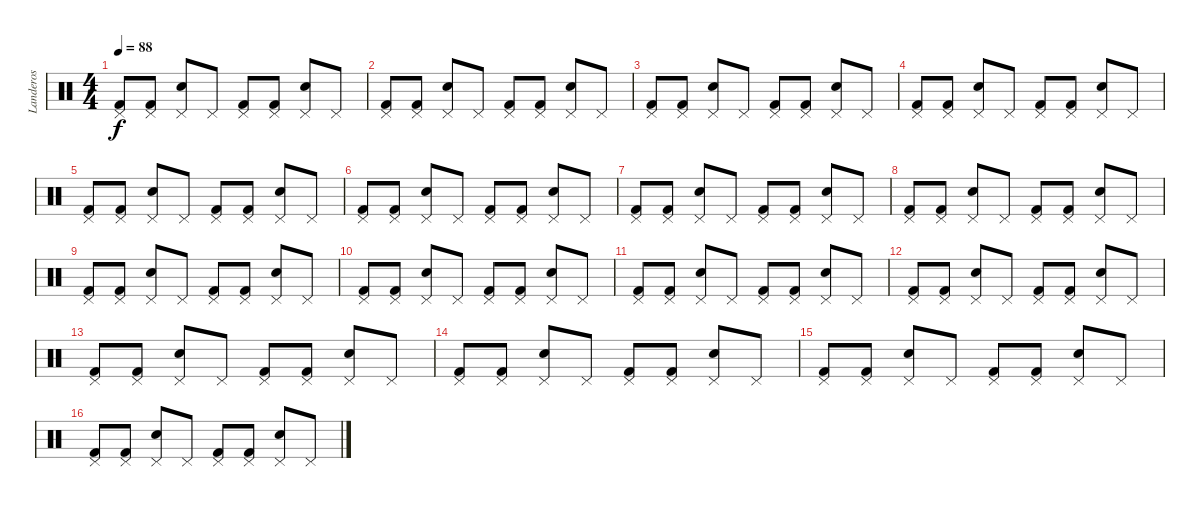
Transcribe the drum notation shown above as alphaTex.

\track ("Landeros" "Landeros") {instrument percussion}
\staff {score}
\articulation defaults
\ts (4 4)
\tempo 88
\clef neutral
\ks c
("Kick (hit) 2" "Pedal Hi-Hat (hit)").8{dy f} ("Kick (hit) 2" "Pedal Hi-Hat (hit)").8 ("Electric Snare (hit)" "Pedal Hi-Hat (hit)").8 "Pedal Hi-Hat (hit)".8 ("Kick (hit) 2" "Pedal Hi-Hat (hit)").8 ("Kick (hit) 2" "Pedal Hi-Hat (hit)").8 ("Electric Snare (hit)" "Pedal Hi-Hat (hit)").8 "Pedal Hi-Hat (hit)".8 |
("Kick (hit) 2" "Pedal Hi-Hat (hit)").8 ("Kick (hit) 2" "Pedal Hi-Hat (hit)").8 ("Electric Snare (hit)" "Pedal Hi-Hat (hit)").8 "Pedal Hi-Hat (hit)".8 ("Kick (hit) 2" "Pedal Hi-Hat (hit)").8 ("Kick (hit) 2" "Pedal Hi-Hat (hit)").8 ("Electric Snare (hit)" "Pedal Hi-Hat (hit)").8 "Pedal Hi-Hat (hit)".8 |
("Kick (hit) 2" "Pedal Hi-Hat (hit)").8 ("Kick (hit) 2" "Pedal Hi-Hat (hit)").8 ("Electric Snare (hit)" "Pedal Hi-Hat (hit)").8 "Pedal Hi-Hat (hit)".8 ("Kick (hit) 2" "Pedal Hi-Hat (hit)").8 ("Kick (hit) 2" "Pedal Hi-Hat (hit)").8 ("Electric Snare (hit)" "Pedal Hi-Hat (hit)").8 "Pedal Hi-Hat (hit)".8 |
("Kick (hit) 2" "Pedal Hi-Hat (hit)").8 ("Kick (hit) 2" "Pedal Hi-Hat (hit)").8 ("Electric Snare (hit)" "Pedal Hi-Hat (hit)").8 "Pedal Hi-Hat (hit)".8 ("Kick (hit) 2" "Pedal Hi-Hat (hit)").8 ("Kick (hit) 2" "Pedal Hi-Hat (hit)").8 ("Electric Snare (hit)" "Pedal Hi-Hat (hit)").8 "Pedal Hi-Hat (hit)".8 |
("Kick (hit) 2" "Pedal Hi-Hat (hit)").8 ("Kick (hit) 2" "Pedal Hi-Hat (hit)").8 ("Electric Snare (hit)" "Pedal Hi-Hat (hit)").8 "Pedal Hi-Hat (hit)".8 ("Kick (hit) 2" "Pedal Hi-Hat (hit)").8 ("Kick (hit) 2" "Pedal Hi-Hat (hit)").8 ("Electric Snare (hit)" "Pedal Hi-Hat (hit)").8 "Pedal Hi-Hat (hit)".8 |
("Kick (hit) 2" "Pedal Hi-Hat (hit)").8 ("Kick (hit) 2" "Pedal Hi-Hat (hit)").8 ("Electric Snare (hit)" "Pedal Hi-Hat (hit)").8 "Pedal Hi-Hat (hit)".8 ("Kick (hit) 2" "Pedal Hi-Hat (hit)").8 ("Kick (hit) 2" "Pedal Hi-Hat (hit)").8 ("Electric Snare (hit)" "Pedal Hi-Hat (hit)").8 "Pedal Hi-Hat (hit)".8 |
("Kick (hit) 2" "Pedal Hi-Hat (hit)").8 ("Kick (hit) 2" "Pedal Hi-Hat (hit)").8 ("Electric Snare (hit)" "Pedal Hi-Hat (hit)").8 "Pedal Hi-Hat (hit)".8 ("Kick (hit) 2" "Pedal Hi-Hat (hit)").8 ("Kick (hit) 2" "Pedal Hi-Hat (hit)").8 ("Electric Snare (hit)" "Pedal Hi-Hat (hit)").8 "Pedal Hi-Hat (hit)".8 |
("Kick (hit) 2" "Pedal Hi-Hat (hit)").8 ("Kick (hit) 2" "Pedal Hi-Hat (hit)").8 ("Electric Snare (hit)" "Pedal Hi-Hat (hit)").8 "Pedal Hi-Hat (hit)".8 ("Kick (hit) 2" "Pedal Hi-Hat (hit)").8 ("Kick (hit) 2" "Pedal Hi-Hat (hit)").8 ("Electric Snare (hit)" "Pedal Hi-Hat (hit)").8 "Pedal Hi-Hat (hit)".8 |
("Kick (hit) 2" "Pedal Hi-Hat (hit)").8 ("Kick (hit) 2" "Pedal Hi-Hat (hit)").8 ("Electric Snare (hit)" "Pedal Hi-Hat (hit)").8 "Pedal Hi-Hat (hit)".8 ("Kick (hit) 2" "Pedal Hi-Hat (hit)").8 ("Kick (hit) 2" "Pedal Hi-Hat (hit)").8 ("Electric Snare (hit)" "Pedal Hi-Hat (hit)").8 "Pedal Hi-Hat (hit)".8 |
("Kick (hit) 2" "Pedal Hi-Hat (hit)").8 ("Kick (hit) 2" "Pedal Hi-Hat (hit)").8 ("Electric Snare (hit)" "Pedal Hi-Hat (hit)").8 "Pedal Hi-Hat (hit)".8 ("Kick (hit) 2" "Pedal Hi-Hat (hit)").8 ("Kick (hit) 2" "Pedal Hi-Hat (hit)").8 ("Electric Snare (hit)" "Pedal Hi-Hat (hit)").8 "Pedal Hi-Hat (hit)".8 |
("Kick (hit) 2" "Pedal Hi-Hat (hit)").8 ("Kick (hit) 2" "Pedal Hi-Hat (hit)").8 ("Electric Snare (hit)" "Pedal Hi-Hat (hit)").8 "Pedal Hi-Hat (hit)".8 ("Kick (hit) 2" "Pedal Hi-Hat (hit)").8 ("Kick (hit) 2" "Pedal Hi-Hat (hit)").8 ("Electric Snare (hit)" "Pedal Hi-Hat (hit)").8 "Pedal Hi-Hat (hit)".8 |
("Kick (hit) 2" "Pedal Hi-Hat (hit)").8 ("Kick (hit) 2" "Pedal Hi-Hat (hit)").8 ("Electric Snare (hit)" "Pedal Hi-Hat (hit)").8 "Pedal Hi-Hat (hit)".8 ("Kick (hit) 2" "Pedal Hi-Hat (hit)").8 ("Kick (hit) 2" "Pedal Hi-Hat (hit)").8 ("Electric Snare (hit)" "Pedal Hi-Hat (hit)").8 "Pedal Hi-Hat (hit)".8 |
("Kick (hit) 2" "Pedal Hi-Hat (hit)").8 ("Kick (hit) 2" "Pedal Hi-Hat (hit)").8 ("Electric Snare (hit)" "Pedal Hi-Hat (hit)").8 "Pedal Hi-Hat (hit)".8 ("Kick (hit) 2" "Pedal Hi-Hat (hit)").8 ("Kick (hit) 2" "Pedal Hi-Hat (hit)").8 ("Electric Snare (hit)" "Pedal Hi-Hat (hit)").8 "Pedal Hi-Hat (hit)".8 |
("Kick (hit) 2" "Pedal Hi-Hat (hit)").8 ("Kick (hit) 2" "Pedal Hi-Hat (hit)").8 ("Electric Snare (hit)" "Pedal Hi-Hat (hit)").8 "Pedal Hi-Hat (hit)".8 ("Kick (hit) 2" "Pedal Hi-Hat (hit)").8 ("Kick (hit) 2" "Pedal Hi-Hat (hit)").8 ("Electric Snare (hit)" "Pedal Hi-Hat (hit)").8 "Pedal Hi-Hat (hit)".8 |
("Kick (hit) 2" "Pedal Hi-Hat (hit)").8 ("Kick (hit) 2" "Pedal Hi-Hat (hit)").8 ("Electric Snare (hit)" "Pedal Hi-Hat (hit)").8 "Pedal Hi-Hat (hit)".8 ("Kick (hit) 2" "Pedal Hi-Hat (hit)").8 ("Kick (hit) 2" "Pedal Hi-Hat (hit)").8 ("Electric Snare (hit)" "Pedal Hi-Hat (hit)").8 "Pedal Hi-Hat (hit)".8 |
("Kick (hit) 2" "Pedal Hi-Hat (hit)").8 ("Kick (hit) 2" "Pedal Hi-Hat (hit)").8 ("Electric Snare (hit)" "Pedal Hi-Hat (hit)").8 "Pedal Hi-Hat (hit)".8 ("Kick (hit) 2" "Pedal Hi-Hat (hit)").8 ("Kick (hit) 2" "Pedal Hi-Hat (hit)").8 ("Electric Snare (hit)" "Pedal Hi-Hat (hit)").8 "Pedal Hi-Hat (hit)".8
